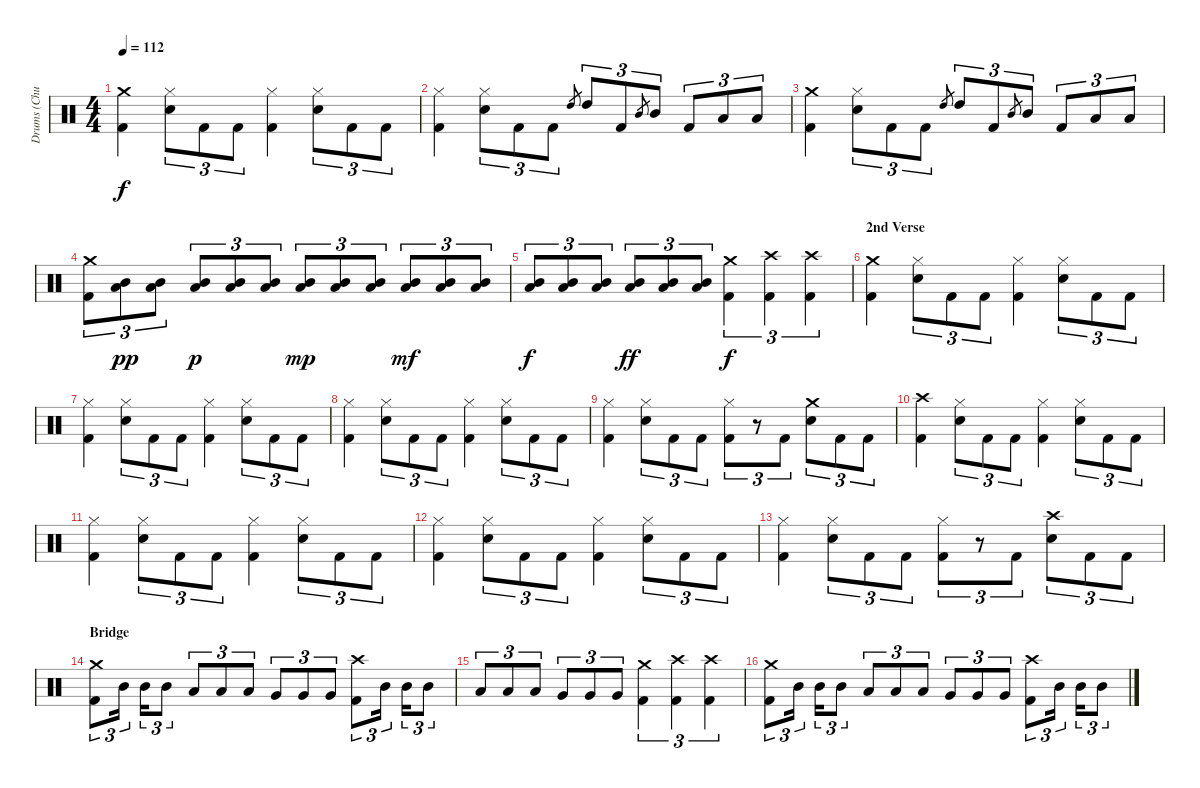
\track ("Drums (Chuck Behler)" "Drums (Chu") {instrument percussion}
\staff {score}
\articulation defaults
\ts (4 4)
\tempo 112
\clef neutral
\ks c
("Crash medium (hit)" "Kick (hit) 2").4{dy f} ("Hi-Hat (closed)" "Snare (hit) 2").8{tu (3 2)} "Kick (hit) 2".8{tu (3 2)} "Kick (hit) 2".8{tu (3 2)} ("Hi-Hat (closed)" "Kick (hit) 2").4 ("Hi-Hat (closed)" "Snare (hit) 2").8{tu (3 2)} "Kick (hit) 2".8{tu (3 2)} "Kick (hit) 2".8{tu (3 2)} |
("Hi-Hat (closed)" "Kick (hit) 2").4 ("Hi-Hat (closed)" "Snare (hit) 2").8{tu (3 2)} "Kick (hit) 2".8{tu (3 2)} "Kick (hit) 2".8{tu (3 2)} "High Tom (hit)".8{gr} "High Tom (hit)".8{tu (3 2)} "Kick (hit) 2".8{tu (3 2)} "Mid Tom (hit)".8{gr} "Mid Tom (hit)".8{tu (3 2)} "Kick (hit) 2".8{tu (3 2)} "Low Tom (hit)".8{tu (3 2)} "Low Tom (hit)".8{tu (3 2)} |
("Crash medium (hit)" "Kick (hit) 2").4 ("Hi-Hat (closed)" "Snare (hit) 2").8{tu (3 2)} "Kick (hit) 2".8{tu (3 2)} "Kick (hit) 2".8{tu (3 2)} "High Tom (hit)".8{gr} "High Tom (hit)".8{tu (3 2)} "Kick (hit) 2".8{tu (3 2)} "Mid Tom (hit)".8{gr} "Mid Tom (hit)".8{tu (3 2)} "Kick (hit) 2".8{tu (3 2)} "Low Tom (hit)".8{tu (3 2)} "Low Tom (hit)".8{tu (3 2)} |
("Crash medium (hit)" "Kick (hit) 2").8{tu (3 2)} ("Mid Tom (hit)" "Low Tom (hit)").8{tu (3 2) dy pp} ("Mid Tom (hit)" "Low Tom (hit)").8{tu (3 2)} ("Mid Tom (hit)" "Low Tom (hit)").8{tu (3 2) dy p} ("Mid Tom (hit)" "Low Tom (hit)").8{tu (3 2)} ("Mid Tom (hit)" "Low Tom (hit)").8{tu (3 2)} ("Mid Tom (hit)" "Low Tom (hit)").8{tu (3 2) dy mp} ("Mid Tom (hit)" "Low Tom (hit)").8{tu (3 2)} ("Mid Tom (hit)" "Low Tom (hit)").8{tu (3 2)} ("Mid Tom (hit)" "Low Tom (hit)").8{tu (3 2) dy mf} ("Mid Tom (hit)" "Low Tom (hit)").8{tu (3 2)} ("Mid Tom (hit)" "Low Tom (hit)").8{tu (3 2)} |
("Mid Tom (hit)" "Low Tom (hit)").8{tu (3 2) dy f} ("Mid Tom (hit)" "Low Tom (hit)").8{tu (3 2)} ("Mid Tom (hit)" "Low Tom (hit)").8{tu (3 2)} ("Mid Tom (hit)" "Low Tom (hit)").8{tu (3 2) dy ff} ("Mid Tom (hit)" "Low Tom (hit)").8{tu (3 2)} ("Mid Tom (hit)" "Low Tom (hit)").8{tu (3 2)} ("Crash medium (hit)" "Kick (hit) 2").4{tu (3 2) dy f} ("Crash high (hit)" "Kick (hit) 2").4{tu (3 2)} ("Crash high (hit)" "Kick (hit) 2").4{tu (3 2)} |
\section ("" "2nd Verse")
("Crash medium (hit)" "Kick (hit) 2").4 ("Hi-Hat (closed)" "Snare (hit) 2").8{tu (3 2)} "Kick (hit) 2".8{tu (3 2)} "Kick (hit) 2".8{tu (3 2)} ("Hi-Hat (closed)" "Kick (hit) 2").4 ("Hi-Hat (closed)" "Snare (hit) 2").8{tu (3 2)} "Kick (hit) 2".8{tu (3 2)} "Kick (hit) 2".8{tu (3 2)} |
("Hi-Hat (closed)" "Kick (hit) 2").4 ("Hi-Hat (closed)" "Snare (hit) 2").8{tu (3 2)} "Kick (hit) 2".8{tu (3 2)} "Kick (hit) 2".8{tu (3 2)} ("Hi-Hat (closed)" "Kick (hit) 2").4 ("Hi-Hat (closed)" "Snare (hit) 2").8{tu (3 2)} "Kick (hit) 2".8{tu (3 2)} "Kick (hit) 2".8{tu (3 2)} |
("Hi-Hat (closed)" "Kick (hit) 2").4 ("Hi-Hat (closed)" "Snare (hit) 2").8{tu (3 2)} "Kick (hit) 2".8{tu (3 2)} "Kick (hit) 2".8{tu (3 2)} ("Hi-Hat (closed)" "Kick (hit) 2").4 ("Hi-Hat (closed)" "Snare (hit) 2").8{tu (3 2)} "Kick (hit) 2".8{tu (3 2)} "Kick (hit) 2".8{tu (3 2)} |
("Hi-Hat (closed)" "Kick (hit) 2").4 ("Hi-Hat (closed)" "Snare (hit) 2").8{tu (3 2)} "Kick (hit) 2".8{tu (3 2)} "Kick (hit) 2".8{tu (3 2)} ("Hi-Hat (closed)" "Kick (hit) 2").8{tu (3 2)} r.8{tu (3 2)} "Kick (hit) 2".8{tu (3 2)} ("Crash medium (hit)" "Snare (hit) 2").8{tu (3 2)} "Kick (hit) 2".8{tu (3 2)} "Kick (hit) 2".8{tu (3 2)} |
("Crash high (hit)" "Kick (hit) 2").4 ("Hi-Hat (closed)" "Snare (hit) 2").8{tu (3 2)} "Kick (hit) 2".8{tu (3 2)} "Kick (hit) 2".8{tu (3 2)} ("Hi-Hat (closed)" "Kick (hit) 2").4 ("Hi-Hat (closed)" "Snare (hit) 2").8{tu (3 2)} "Kick (hit) 2".8{tu (3 2)} "Kick (hit) 2".8{tu (3 2)} |
("Hi-Hat (closed)" "Kick (hit) 2").4 ("Hi-Hat (closed)" "Snare (hit) 2").8{tu (3 2)} "Kick (hit) 2".8{tu (3 2)} "Kick (hit) 2".8{tu (3 2)} ("Hi-Hat (closed)" "Kick (hit) 2").4 ("Hi-Hat (closed)" "Snare (hit) 2").8{tu (3 2)} "Kick (hit) 2".8{tu (3 2)} "Kick (hit) 2".8{tu (3 2)} |
("Hi-Hat (closed)" "Kick (hit) 2").4 ("Hi-Hat (closed)" "Snare (hit) 2").8{tu (3 2)} "Kick (hit) 2".8{tu (3 2)} "Kick (hit) 2".8{tu (3 2)} ("Hi-Hat (closed)" "Kick (hit) 2").4 ("Hi-Hat (closed)" "Snare (hit) 2").8{tu (3 2)} "Kick (hit) 2".8{tu (3 2)} "Kick (hit) 2".8{tu (3 2)} |
("Hi-Hat (closed)" "Kick (hit) 2").4 ("Hi-Hat (closed)" "Snare (hit) 2").8{tu (3 2)} "Kick (hit) 2".8{tu (3 2)} "Kick (hit) 2".8{tu (3 2)} ("Hi-Hat (closed)" "Kick (hit) 2").8{tu (3 2)} r.8{tu (3 2)} "Kick (hit) 2".8{tu (3 2)} ("Crash high (hit)" "Snare (hit) 2").8{tu (3 2)} "Kick (hit) 2".8{tu (3 2)} "Kick (hit) 2".8{tu (3 2)} |
\section ("" "Bridge")
("Crash medium (hit)" "Kick (hit) 2").8{tu (3 2)} "Mid Tom (hit)".16{tu (3 2)} "Mid Tom (hit)".16{tu (3 2)} "Mid Tom (hit)".8{tu (3 2)} "Low Tom (hit)".8{tu (3 2)} "Low Tom (hit)".8{tu (3 2)} "Low Tom (hit)".8{tu (3 2)} "Very Low Tom (hit)".8{tu (3 2)} "Very Low Tom (hit)".8{tu (3 2)} "Very Low Tom (hit)".8{tu (3 2)} ("Crash high (hit)" "Kick (hit) 2").8{tu (3 2)} "Mid Tom (hit)".16{tu (3 2)} "Mid Tom (hit)".16{tu (3 2)} "Mid Tom (hit)".8{tu (3 2)} |
"Low Tom (hit)".8{tu (3 2)} "Low Tom (hit)".8{tu (3 2)} "Low Tom (hit)".8{tu (3 2)} "Very Low Tom (hit)".8{tu (3 2)} "Very Low Tom (hit)".8{tu (3 2)} "Very Low Tom (hit)".8{tu (3 2)} ("Crash medium (hit)" "Kick (hit) 2").4{tu (3 2)} ("Crash high (hit)" "Kick (hit) 2").4{tu (3 2)} ("Crash high (hit)" "Kick (hit) 2").4{tu (3 2)} |
("Crash medium (hit)" "Kick (hit) 2").8{tu (3 2)} "Mid Tom (hit)".16{tu (3 2)} "Mid Tom (hit)".16{tu (3 2)} "Mid Tom (hit)".8{tu (3 2)} "Low Tom (hit)".8{tu (3 2)} "Low Tom (hit)".8{tu (3 2)} "Low Tom (hit)".8{tu (3 2)} "Very Low Tom (hit)".8{tu (3 2)} "Very Low Tom (hit)".8{tu (3 2)} "Very Low Tom (hit)".8{tu (3 2)} ("Crash high (hit)" "Kick (hit) 2").8{tu (3 2)} "Mid Tom (hit)".16{tu (3 2)} "Mid Tom (hit)".16{tu (3 2)} "Mid Tom (hit)".8{tu (3 2)}
